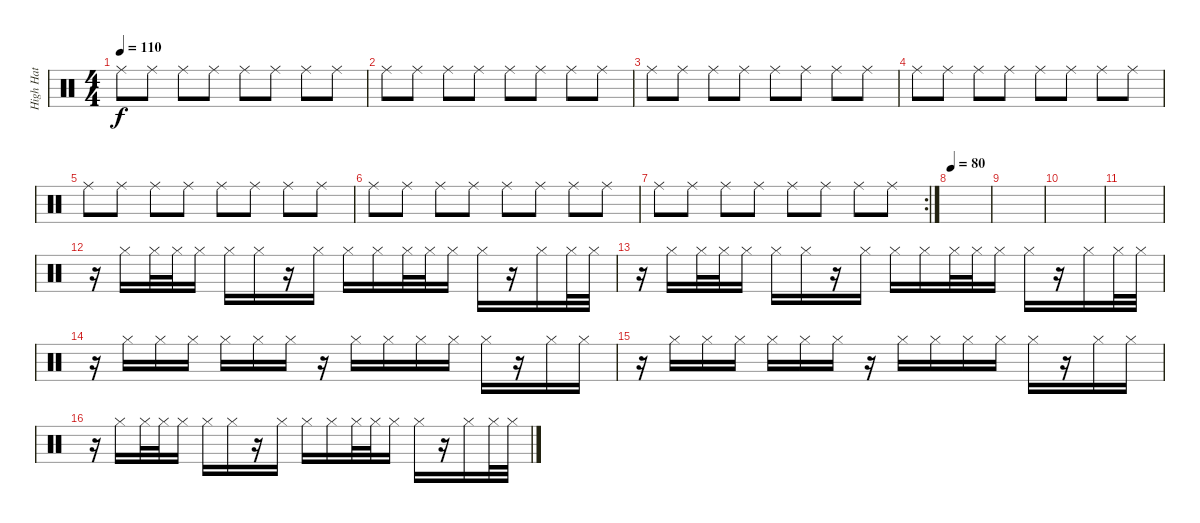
\track ("High Hat" "High Hat") {instrument percussion}
\staff {score}
\articulation defaults
\ts (4 4)
\tempo 110
\clef neutral
\ks c "Ride (middle)".8{dy f} "Ride (middle)".8 "Ride (middle)".8 "Ride (middle)".8 "Ride (middle)".8 "Ride (middle)".8 "Ride (middle)".8 "Ride (middle)".8
|
"Ride (middle)".8 "Ride (middle)".8 "Ride (middle)".8 "Ride (middle)".8 "Ride (middle)".8 "Ride (middle)".8 "Ride (middle)".8 "Ride (middle)".8 |
"Ride (middle)".8 "Ride (middle)".8 "Ride (middle)".8 "Ride (middle)".8 "Ride (middle)".8 "Ride (middle)".8 "Ride (middle)".8 "Ride (middle)".8 |
"Ride (middle)".8 "Ride (middle)".8 "Ride (middle)".8 "Ride (middle)".8 "Ride (middle)".8 "Ride (middle)".8 "Ride (middle)".8 "Ride (middle)".8 |
"Ride (middle)".8 "Ride (middle)".8 "Ride (middle)".8 "Ride (middle)".8 "Ride (middle)".8 "Ride (middle)".8 "Ride (middle)".8 "Ride (middle)".8 |
"Ride (middle)".8 "Ride (middle)".8 "Ride (middle)".8 "Ride (middle)".8 "Ride (middle)".8 "Ride (middle)".8 "Ride (middle)".8 "Ride (middle)".8 |
\rc 2 "Ride (middle)".8 "Ride (middle)".8 "Ride (middle)".8 "Ride (middle)".8 "Ride (middle)".8 "Ride (middle)".8 "Ride (middle)".8 "Ride (middle)".8
|
\tempo 80
|
|
|
|
r.16 "Hi-Hat (closed)".16 "Hi-Hat (closed)".32 "Hi-Hat (closed)".32 "Hi-Hat (closed)".16 "Hi-Hat (closed)".16 "Hi-Hat (closed)".16 r.16 "Hi-Hat (closed)".16 "Hi-Hat (closed)".16 "Hi-Hat (closed)".16 "Hi-Hat (closed)".32 "Hi-Hat (closed)".32 "Hi-Hat (closed)".16 "Hi-Hat (closed)".16 r.16 "Hi-Hat (closed)".16 "Hi-Hat (closed)".32 "Hi-Hat (closed)".32 |
r.16 "Hi-Hat (closed)".16 "Hi-Hat (closed)".32 "Hi-Hat (closed)".32 "Hi-Hat (closed)".16 "Hi-Hat (closed)".16 "Hi-Hat (closed)".16 r.16 "Hi-Hat (closed)".16 "Hi-Hat (closed)".16 "Hi-Hat (closed)".16 "Hi-Hat (closed)".32 "Hi-Hat (closed)".32 "Hi-Hat (closed)".16 "Hi-Hat (closed)".16 r.16 "Hi-Hat (closed)".16 "Hi-Hat (closed)".32 "Hi-Hat (closed)".32 |
r.16 "Hi-Hat (closed)".16 "Hi-Hat (closed)".16 "Hi-Hat (closed)".16 "Hi-Hat (closed)".16 "Hi-Hat (closed)".16 "Hi-Hat (closed)".16 r.16 "Hi-Hat (closed)".16 "Hi-Hat (closed)".16 "Hi-Hat (closed)".16 "Hi-Hat (closed)".16 "Hi-Hat (closed)".16 r.16 "Hi-Hat (closed)".16 "Hi-Hat (closed)".16 |
r.16 "Hi-Hat (closed)".16 "Hi-Hat (closed)".16 "Hi-Hat (closed)".16 "Hi-Hat (closed)".16 "Hi-Hat (closed)".16 "Hi-Hat (closed)".16 r.16 "Hi-Hat (closed)".16 "Hi-Hat (closed)".16 "Hi-Hat (closed)".16 "Hi-Hat (closed)".16 "Hi-Hat (closed)".16 r.16 "Hi-Hat (closed)".16 "Hi-Hat (closed)".16 |
r.16 "Hi-Hat (closed)".16 "Hi-Hat (closed)".32 "Hi-Hat (closed)".32 "Hi-Hat (closed)".16 "Hi-Hat (closed)".16 "Hi-Hat (closed)".16 r.16 "Hi-Hat (closed)".16 "Hi-Hat (closed)".16 "Hi-Hat (closed)".16 "Hi-Hat (closed)".32 "Hi-Hat (closed)".32 "Hi-Hat (closed)".16 "Hi-Hat (closed)".16 r.16 "Hi-Hat (closed)".16 "Hi-Hat (closed)".32 "Hi-Hat (closed)".32
